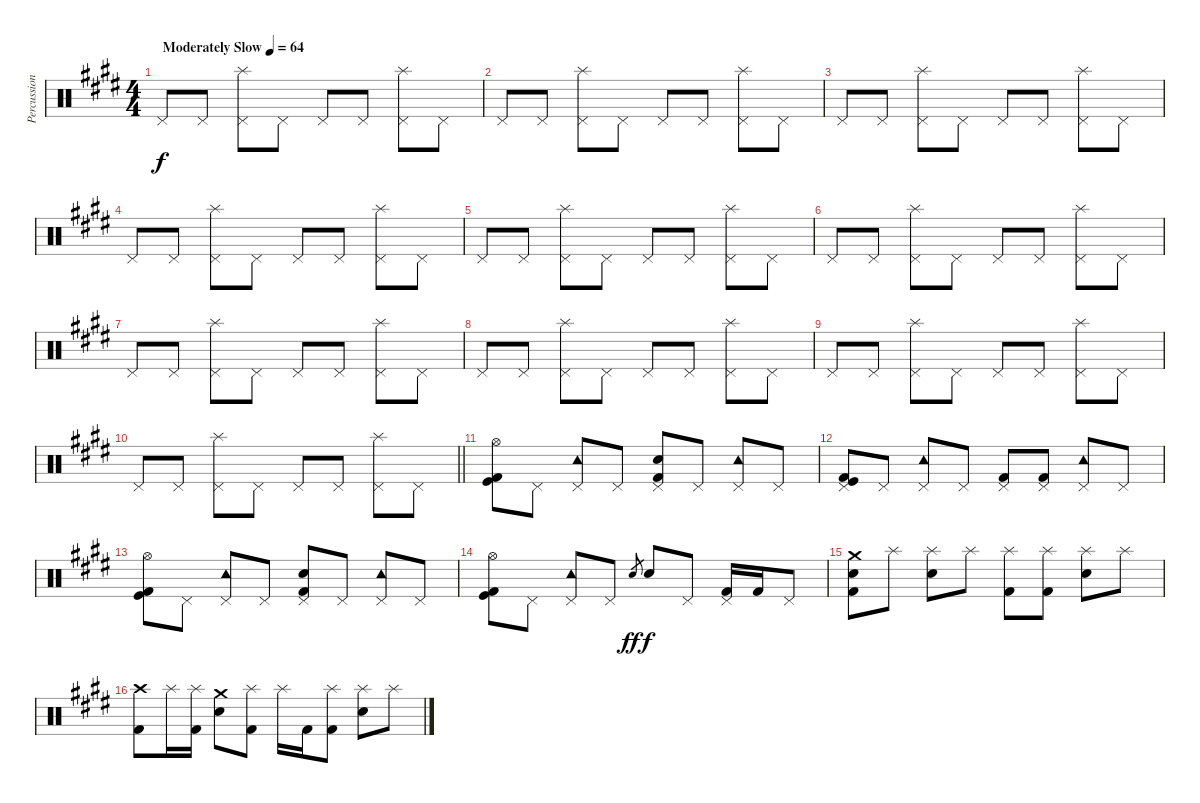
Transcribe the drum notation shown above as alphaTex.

\track ("Percussion" "Percussion") {instrument percussion}
\staff {score}
\articulation defaults
\ts (4 4)
\tempo (64 "Moderately Slow")
\clef neutral
\ks e "Pedal Hi-Hat (hit)".8{dy f} "Pedal Hi-Hat (hit)".8
("Pedal Hi-Hat (hit)" "Splash (hit)").8 "Pedal Hi-Hat (hit)".8 "Pedal Hi-Hat (hit)".8 "Pedal Hi-Hat (hit)".8 ("Pedal Hi-Hat (hit)" "Splash (hit)").8 "Pedal Hi-Hat (hit)".8 |
"Pedal Hi-Hat (hit)".8 "Pedal Hi-Hat (hit)".8 ("Pedal Hi-Hat (hit)" "Splash (hit)").8 "Pedal Hi-Hat (hit)".8 "Pedal Hi-Hat (hit)".8 "Pedal Hi-Hat (hit)".8 ("Pedal Hi-Hat (hit)" "Splash (hit)").8 "Pedal Hi-Hat (hit)".8 |
"Pedal Hi-Hat (hit)".8 "Pedal Hi-Hat (hit)".8 ("Pedal Hi-Hat (hit)" "Splash (hit)").8 "Pedal Hi-Hat (hit)".8 "Pedal Hi-Hat (hit)".8 "Pedal Hi-Hat (hit)".8 ("Pedal Hi-Hat (hit)" "Splash (hit)").8 "Pedal Hi-Hat (hit)".8 |
"Pedal Hi-Hat (hit)".8 "Pedal Hi-Hat (hit)".8 ("Pedal Hi-Hat (hit)" "Splash (hit)").8 "Pedal Hi-Hat (hit)".8 "Pedal Hi-Hat (hit)".8 "Pedal Hi-Hat (hit)".8 ("Pedal Hi-Hat (hit)" "Splash (hit)").8 "Pedal Hi-Hat (hit)".8 |
"Pedal Hi-Hat (hit)".8 "Pedal Hi-Hat (hit)".8 ("Pedal Hi-Hat (hit)" "Splash (hit)").8 "Pedal Hi-Hat (hit)".8 "Pedal Hi-Hat (hit)".8 "Pedal Hi-Hat (hit)".8 ("Pedal Hi-Hat (hit)" "Splash (hit)").8 "Pedal Hi-Hat (hit)".8 |
"Pedal Hi-Hat (hit)".8 "Pedal Hi-Hat (hit)".8 ("Pedal Hi-Hat (hit)" "Splash (hit)").8 "Pedal Hi-Hat (hit)".8 "Pedal Hi-Hat (hit)".8 "Pedal Hi-Hat (hit)".8 ("Pedal Hi-Hat (hit)" "Splash (hit)").8 "Pedal Hi-Hat (hit)".8 |
"Pedal Hi-Hat (hit)".8 "Pedal Hi-Hat (hit)".8 ("Pedal Hi-Hat (hit)" "Splash (hit)").8 "Pedal Hi-Hat (hit)".8 "Pedal Hi-Hat (hit)".8 "Pedal Hi-Hat (hit)".8 ("Pedal Hi-Hat (hit)" "Splash (hit)").8 "Pedal Hi-Hat (hit)".8 |
"Pedal Hi-Hat (hit)".8 "Pedal Hi-Hat (hit)".8 ("Pedal Hi-Hat (hit)" "Splash (hit)").8 "Pedal Hi-Hat (hit)".8 "Pedal Hi-Hat (hit)".8 "Pedal Hi-Hat (hit)".8 ("Pedal Hi-Hat (hit)" "Splash (hit)").8 "Pedal Hi-Hat (hit)".8 |
"Pedal Hi-Hat (hit)".8 "Pedal Hi-Hat (hit)".8 ("Pedal Hi-Hat (hit)" "Splash (hit)").8 "Pedal Hi-Hat (hit)".8 "Pedal Hi-Hat (hit)".8 "Pedal Hi-Hat (hit)".8 ("Pedal Hi-Hat (hit)" "Splash (hit)").8 "Pedal Hi-Hat (hit)".8 |
\barLineRight lightlight "Pedal Hi-Hat (hit)".8 "Pedal Hi-Hat (hit)".8
("Pedal Hi-Hat (hit)" "Splash (hit)").8 "Pedal Hi-Hat (hit)".8 "Pedal Hi-Hat (hit)".8 "Pedal Hi-Hat (hit)".8 ("Pedal Hi-Hat (hit)" "Splash (hit)").8 "Pedal Hi-Hat (hit)".8 |
("Hi-Hat (open)" "Kick (hit)" "Kick (hit) 2").8 "Pedal Hi-Hat (hit)".8 ("Pedal Hi-Hat (hit)" "Tambourine (hit)").8 "Pedal Hi-Hat (hit)".8 ("Pedal Hi-Hat (hit)" "Kick (hit) 2" "Snare (hit) 2").8 "Pedal Hi-Hat (hit)".8 ("Pedal Hi-Hat (hit)" "Tambourine (hit)").8 "Pedal Hi-Hat (hit)".8 |
("Pedal Hi-Hat (hit)" "Kick (hit)" "Kick (hit) 2").8 "Pedal Hi-Hat (hit)".8 ("Pedal Hi-Hat (hit)" "Tambourine (hit)").8 "Pedal Hi-Hat (hit)".8 ("Pedal Hi-Hat (hit)" "Kick (hit) 2").8 ("Pedal Hi-Hat (hit)" "Kick (hit) 2").8 ("Pedal Hi-Hat (hit)" "Tambourine (hit)").8 "Pedal Hi-Hat (hit)".8 |
("Hi-Hat (open)" "Kick (hit)" "Kick (hit) 2").8 "Pedal Hi-Hat (hit)".8 ("Pedal Hi-Hat (hit)" "Tambourine (hit)").8 "Pedal Hi-Hat (hit)".8 ("Pedal Hi-Hat (hit)" "Kick (hit) 2" "Snare (hit) 2").8 "Pedal Hi-Hat (hit)".8 ("Pedal Hi-Hat (hit)" "Tambourine (hit)").8 "Pedal Hi-Hat (hit)".8 |
("Hi-Hat (open)" "Kick (hit)" "Kick (hit) 2").8 "Pedal Hi-Hat (hit)".8 ("Pedal Hi-Hat (hit)" "Tambourine (hit)").8 "Pedal Hi-Hat (hit)".8 "Snare (hit) 2".8{gr dy ff} "Snare (hit) 2".8{dy f} "Pedal Hi-Hat (hit)".8 ("Pedal Hi-Hat (hit)" "Kick (hit) 2").16 "Kick (hit) 2".16 "Pedal Hi-Hat (hit)".8 |
("Crash medium (hit)" "Snare (hit) 2" "Kick (hit) 2").8 "Splash (hit)".8 ("Splash (hit)" "Snare (hit) 2").8 "Splash (hit)".8 ("Splash (hit)" "Kick (hit) 2").8 ("Splash (hit)" "Kick (hit) 2").8 ("Splash (hit)" "Snare (hit) 2").8 "Splash (hit)".8 |
("Crash high (hit)" "Kick (hit) 2").8 "Splash (hit)".16 ("Splash (hit)" "Kick (hit) 2").16 ("Crash medium (hit)" "Snare (hit) 2").8 ("Splash (hit)" "Kick (hit) 2").8 "Splash (hit)".16 "Kick (hit) 2".16 ("Splash (hit)" "Kick (hit) 2").8 ("Splash (hit)" "Snare (hit) 2").8 "Splash (hit)".8
